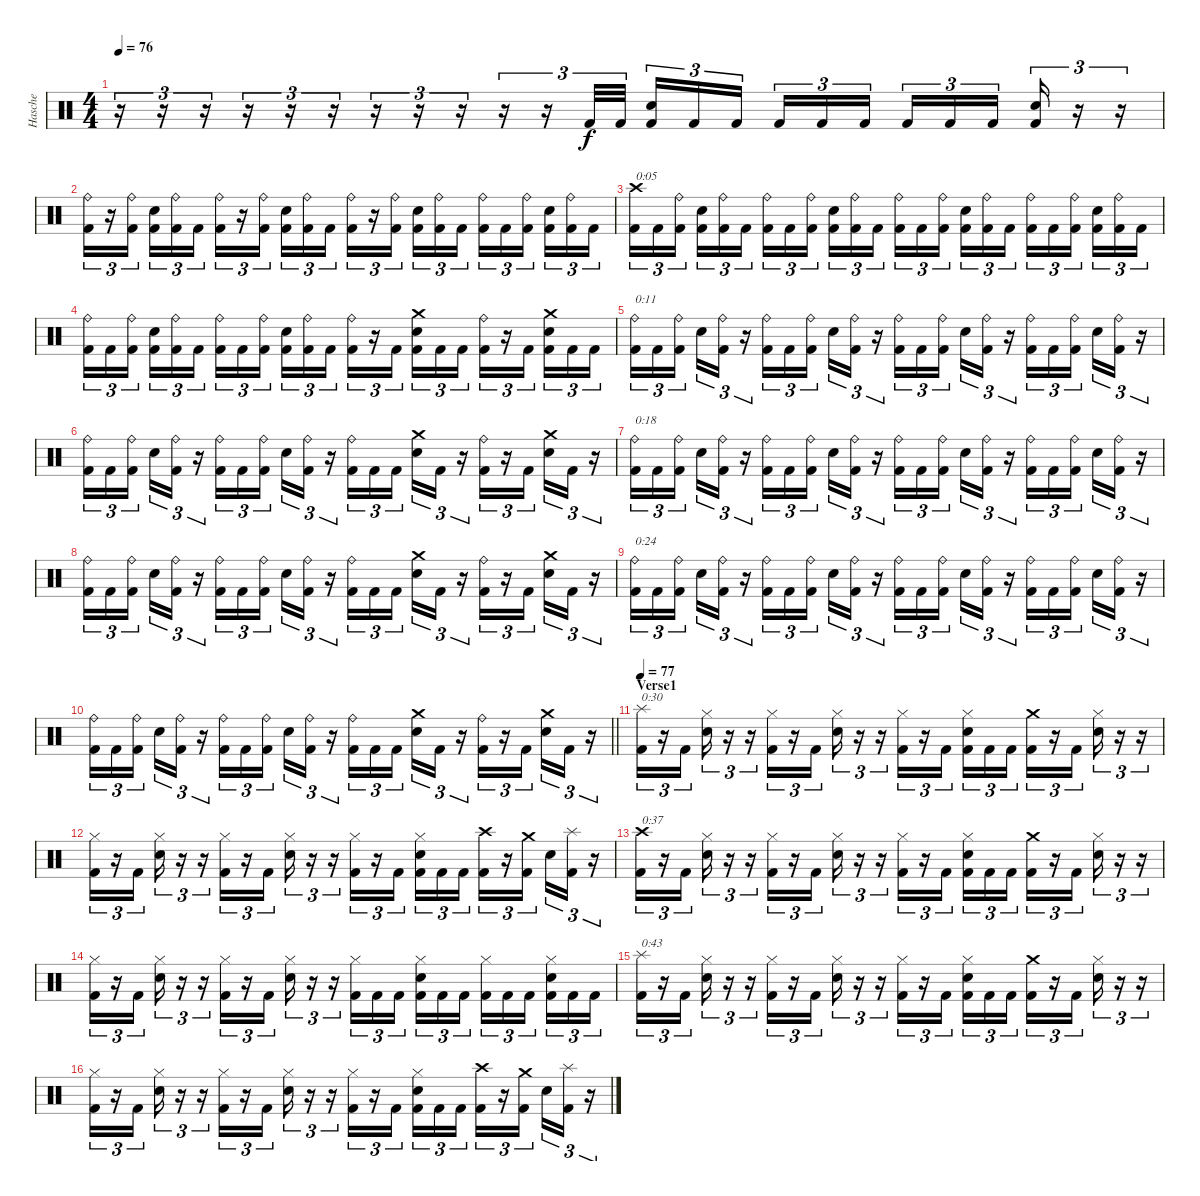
\track ("Hasche" "Hasche") {instrument percussion}
\staff {score}
\articulation defaults
\ts (4 4)
\tempo 76
\clef neutral
\ks c
r.16{tu (3 2) dy f} r.16{tu (3 2)} r.16{tu (3 2)} r.16{tu (3 2)} r.16{tu (3 2)} r.16{tu (3 2)} r.16{tu (3 2)} r.16{tu (3 2)} r.16{tu (3 2)} r.16{tu (3 2)} r.16{tu (3 2)} "Kick (hit) 2".32{tu (3 2)} "Kick (hit) 2".32{tu (3 2)} ("Snare (hit) 2" "Kick (hit) 2").16{tu (3 2)} "Kick (hit) 2".16{tu (3 2)} "Kick (hit) 2".16{tu (3 2) beam splitsecondary} "Kick (hit) 2".16{tu (3 2)} "Kick (hit) 2".16{tu (3 2)} "Kick (hit) 2".16{tu (3 2)} "Kick (hit) 2".16{tu (3 2)} "Kick (hit) 2".16{tu (3 2)} "Kick (hit) 2".16{tu (3 2) beam splitsecondary} ("Snare (hit) 2" "Kick (hit) 2").16{tu (3 2)} r.16{tu (3 2)} r.16{tu (3 2)} |
("Ride (bell)" "Kick (hit) 2").16{tu (3 2)} r.16{tu (3 2)} ("Ride (bell)" "Kick (hit) 2").16{tu (3 2) beam splitsecondary} ("Snare (hit) 2" "Kick (hit) 2").16{tu (3 2)} ("Ride (bell)" "Kick (hit) 2").16{tu (3 2)} "Kick (hit) 2".16{tu (3 2)} ("Ride (bell)" "Kick (hit) 2").16{tu (3 2)} r.16{tu (3 2)} ("Ride (bell)" "Kick (hit) 2").16{tu (3 2) beam splitsecondary} ("Snare (hit) 2" "Kick (hit) 2").16{tu (3 2)} ("Ride (bell)" "Kick (hit) 2").16{tu (3 2)} "Kick (hit) 2".16{tu (3 2)} ("Ride (bell)" "Kick (hit) 2").16{tu (3 2)} r.16{tu (3 2)} ("Ride (bell)" "Kick (hit) 2").16{tu (3 2) beam splitsecondary} ("Snare (hit) 2" "Kick (hit) 2").16{tu (3 2)} ("Ride (bell)" "Kick (hit) 2").16{tu (3 2)} "Kick (hit) 2".16{tu (3 2)} ("Ride (bell)" "Kick (hit) 2").16{tu (3 2)} "Kick (hit) 2".16{tu (3 2)} ("Ride (bell)" "Kick (hit) 2").16{tu (3 2) beam splitsecondary} ("Snare (hit) 2" "Kick (hit) 2").16{tu (3 2)} ("Ride (bell)" "Kick (hit) 2").16{tu (3 2)} "Kick (hit) 2".16{tu (3 2)} |
("Crash high (hit)" "Kick (hit) 2").16{tu (3 2) txt "0:05"} "Kick (hit) 2".16{tu (3 2)} ("Ride (bell)" "Kick (hit) 2").16{tu (3 2) beam splitsecondary} ("Snare (hit) 2" "Kick (hit) 2").16{tu (3 2)} ("Ride (bell)" "Kick (hit) 2").16{tu (3 2)} "Kick (hit) 2".16{tu (3 2)} ("Ride (bell)" "Kick (hit) 2").16{tu (3 2)} "Kick (hit) 2".16{tu (3 2)} ("Ride (bell)" "Kick (hit) 2").16{tu (3 2) beam splitsecondary} ("Snare (hit) 2" "Kick (hit) 2").16{tu (3 2)} ("Ride (bell)" "Kick (hit) 2").16{tu (3 2)} "Kick (hit) 2".16{tu (3 2)} ("Ride (bell)" "Kick (hit) 2").16{tu (3 2)} "Kick (hit) 2".16{tu (3 2)} ("Ride (bell)" "Kick (hit) 2").16{tu (3 2) beam splitsecondary} ("Snare (hit) 2" "Kick (hit) 2").16{tu (3 2)} ("Ride (bell)" "Kick (hit) 2").16{tu (3 2)} "Kick (hit) 2".16{tu (3 2)} ("Ride (bell)" "Kick (hit) 2").16{tu (3 2)} "Kick (hit) 2".16{tu (3 2)} ("Ride (bell)" "Kick (hit) 2").16{tu (3 2) beam splitsecondary} ("Snare (hit) 2" "Kick (hit) 2").16{tu (3 2)} ("Ride (bell)" "Kick (hit) 2").16{tu (3 2)} "Kick (hit) 2".16{tu (3 2)} |
("Ride (bell)" "Kick (hit) 2").16{tu (3 2)} "Kick (hit) 2".16{tu (3 2)} ("Ride (bell)" "Kick (hit) 2").16{tu (3 2) beam splitsecondary} ("Snare (hit) 2" "Kick (hit) 2").16{tu (3 2)} ("Ride (bell)" "Kick (hit) 2").16{tu (3 2)} "Kick (hit) 2".16{tu (3 2)} ("Ride (bell)" "Kick (hit) 2").16{tu (3 2)} "Kick (hit) 2".16{tu (3 2)} ("Ride (bell)" "Kick (hit) 2").16{tu (3 2) beam splitsecondary} ("Snare (hit) 2" "Kick (hit) 2").16{tu (3 2)} ("Ride (bell)" "Kick (hit) 2").16{tu (3 2)} "Kick (hit) 2".16{tu (3 2)} ("Ride (bell)" "Kick (hit) 2").16{tu (3 2)} r.16{tu (3 2)} "Kick (hit) 2".16{tu (3 2) beam splitsecondary} ("Crash medium (hit)" "Snare (hit) 2" "Kick (hit) 2").16{tu (3 2)} "Kick (hit) 2".16{tu (3 2)} "Kick (hit) 2".16{tu (3 2)} ("Ride (bell)" "Kick (hit) 2").16{tu (3 2)} r.16{tu (3 2)} "Kick (hit) 2".16{tu (3 2) beam splitsecondary} ("Crash medium (hit)" "Snare (hit) 2" "Kick (hit) 2").16{tu (3 2)} "Kick (hit) 2".16{tu (3 2)} "Kick (hit) 2".16{tu (3 2)} |
("Ride (bell)" "Kick (hit) 2").16{tu (3 2) txt "0:11"} "Kick (hit) 2".16{tu (3 2)} ("Ride (bell)" "Kick (hit) 2").16{tu (3 2) beam splitsecondary} "Snare (hit) 2".16{tu (3 2)} ("Ride (bell)" "Kick (hit) 2").16{tu (3 2)} r.16{tu (3 2)} ("Ride (bell)" "Kick (hit) 2").16{tu (3 2)} "Kick (hit) 2".16{tu (3 2)} ("Ride (bell)" "Kick (hit) 2").16{tu (3 2) beam splitsecondary} "Snare (hit) 2".16{tu (3 2)} ("Ride (bell)" "Kick (hit) 2").16{tu (3 2)} r.16{tu (3 2)} ("Ride (bell)" "Kick (hit) 2").16{tu (3 2)} "Kick (hit) 2".16{tu (3 2)} ("Ride (bell)" "Kick (hit) 2").16{tu (3 2) beam splitsecondary} "Snare (hit) 2".16{tu (3 2)} ("Ride (bell)" "Kick (hit) 2").16{tu (3 2)} r.16{tu (3 2)} ("Ride (bell)" "Kick (hit) 2").16{tu (3 2)} "Kick (hit) 2".16{tu (3 2)} ("Ride (bell)" "Kick (hit) 2").16{tu (3 2) beam splitsecondary} "Snare (hit) 2".16{tu (3 2)} ("Ride (bell)" "Kick (hit) 2").16{tu (3 2)} r.16{tu (3 2)} |
("Ride (bell)" "Kick (hit) 2").16{tu (3 2)} "Kick (hit) 2".16{tu (3 2)} ("Ride (bell)" "Kick (hit) 2").16{tu (3 2) beam splitsecondary} "Snare (hit) 2".16{tu (3 2)} ("Ride (bell)" "Kick (hit) 2").16{tu (3 2)} r.16{tu (3 2)} ("Ride (bell)" "Kick (hit) 2").16{tu (3 2)} "Kick (hit) 2".16{tu (3 2)} ("Ride (bell)" "Kick (hit) 2").16{tu (3 2) beam splitsecondary} "Snare (hit) 2".16{tu (3 2)} ("Ride (bell)" "Kick (hit) 2").16{tu (3 2)} r.16{tu (3 2)} ("Ride (bell)" "Kick (hit) 2").16{tu (3 2)} "Kick (hit) 2".16{tu (3 2)} "Kick (hit) 2".16{tu (3 2) beam splitsecondary} ("Crash medium (hit)" "Snare (hit) 2").16{tu (3 2)} "Kick (hit) 2".16{tu (3 2)} r.16{tu (3 2)} ("Ride (bell)" "Kick (hit) 2").16{tu (3 2)} r.16{tu (3 2)} "Kick (hit) 2".16{tu (3 2) beam splitsecondary} ("Crash medium (hit)" "Snare (hit) 2").16{tu (3 2)} "Kick (hit) 2".16{tu (3 2)} r.16{tu (3 2)} |
("Ride (bell)" "Kick (hit) 2").16{tu (3 2) txt "0:18"} "Kick (hit) 2".16{tu (3 2)} ("Ride (bell)" "Kick (hit) 2").16{tu (3 2) beam splitsecondary} "Snare (hit) 2".16{tu (3 2)} ("Ride (bell)" "Kick (hit) 2").16{tu (3 2)} r.16{tu (3 2)} ("Ride (bell)" "Kick (hit) 2").16{tu (3 2)} "Kick (hit) 2".16{tu (3 2)} ("Ride (bell)" "Kick (hit) 2").16{tu (3 2) beam splitsecondary} "Snare (hit) 2".16{tu (3 2)} ("Ride (bell)" "Kick (hit) 2").16{tu (3 2)} r.16{tu (3 2)} ("Ride (bell)" "Kick (hit) 2").16{tu (3 2)} "Kick (hit) 2".16{tu (3 2)} ("Ride (bell)" "Kick (hit) 2").16{tu (3 2) beam splitsecondary} "Snare (hit) 2".16{tu (3 2)} ("Ride (bell)" "Kick (hit) 2").16{tu (3 2)} r.16{tu (3 2)} ("Ride (bell)" "Kick (hit) 2").16{tu (3 2)} "Kick (hit) 2".16{tu (3 2)} ("Ride (bell)" "Kick (hit) 2").16{tu (3 2) beam splitsecondary} "Snare (hit) 2".16{tu (3 2)} ("Ride (bell)" "Kick (hit) 2").16{tu (3 2)} r.16{tu (3 2)} |
("Ride (bell)" "Kick (hit) 2").16{tu (3 2)} "Kick (hit) 2".16{tu (3 2)} ("Ride (bell)" "Kick (hit) 2").16{tu (3 2) beam splitsecondary} "Snare (hit) 2".16{tu (3 2)} ("Ride (bell)" "Kick (hit) 2").16{tu (3 2)} r.16{tu (3 2)} ("Ride (bell)" "Kick (hit) 2").16{tu (3 2)} "Kick (hit) 2".16{tu (3 2)} ("Ride (bell)" "Kick (hit) 2").16{tu (3 2) beam splitsecondary} "Snare (hit) 2".16{tu (3 2)} ("Ride (bell)" "Kick (hit) 2").16{tu (3 2)} r.16{tu (3 2)} ("Ride (bell)" "Kick (hit) 2").16{tu (3 2)} "Kick (hit) 2".16{tu (3 2)} "Kick (hit) 2".16{tu (3 2) beam splitsecondary} ("Crash medium (hit)" "Snare (hit) 2").16{tu (3 2)} "Kick (hit) 2".16{tu (3 2)} r.16{tu (3 2)} ("Ride (bell)" "Kick (hit) 2").16{tu (3 2)} r.16{tu (3 2)} "Kick (hit) 2".16{tu (3 2) beam splitsecondary} ("Crash medium (hit)" "Snare (hit) 2").16{tu (3 2)} "Kick (hit) 2".16{tu (3 2)} r.16{tu (3 2)} |
("Ride (bell)" "Kick (hit) 2").16{tu (3 2) txt "0:24"} "Kick (hit) 2".16{tu (3 2)} ("Ride (bell)" "Kick (hit) 2").16{tu (3 2) beam splitsecondary} "Snare (hit) 2".16{tu (3 2)} ("Ride (bell)" "Kick (hit) 2").16{tu (3 2)} r.16{tu (3 2)} ("Ride (bell)" "Kick (hit) 2").16{tu (3 2)} "Kick (hit) 2".16{tu (3 2)} ("Ride (bell)" "Kick (hit) 2").16{tu (3 2) beam splitsecondary} "Snare (hit) 2".16{tu (3 2)} ("Ride (bell)" "Kick (hit) 2").16{tu (3 2)} r.16{tu (3 2)} ("Ride (bell)" "Kick (hit) 2").16{tu (3 2)} "Kick (hit) 2".16{tu (3 2)} ("Ride (bell)" "Kick (hit) 2").16{tu (3 2) beam splitsecondary} "Snare (hit) 2".16{tu (3 2)} ("Ride (bell)" "Kick (hit) 2").16{tu (3 2)} r.16{tu (3 2)} ("Ride (bell)" "Kick (hit) 2").16{tu (3 2)} "Kick (hit) 2".16{tu (3 2)} ("Ride (bell)" "Kick (hit) 2").16{tu (3 2) beam splitsecondary} "Snare (hit) 2".16{tu (3 2)} ("Ride (bell)" "Kick (hit) 2").16{tu (3 2)} r.16{tu (3 2)} |
\barLineRight lightlight
("Ride (bell)" "Kick (hit) 2").16{tu (3 2)} "Kick (hit) 2".16{tu (3 2)} ("Ride (bell)" "Kick (hit) 2").16{tu (3 2) beam splitsecondary} "Snare (hit) 2".16{tu (3 2)} ("Ride (bell)" "Kick (hit) 2").16{tu (3 2)} r.16{tu (3 2)} ("Ride (bell)" "Kick (hit) 2").16{tu (3 2)} "Kick (hit) 2".16{tu (3 2)} ("Ride (bell)" "Kick (hit) 2").16{tu (3 2) beam splitsecondary} "Snare (hit) 2".16{tu (3 2)} ("Ride (bell)" "Kick (hit) 2").16{tu (3 2)} r.16{tu (3 2)} ("Ride (bell)" "Kick (hit) 2").16{tu (3 2)} "Kick (hit) 2".16{tu (3 2)} "Kick (hit) 2".16{tu (3 2) beam splitsecondary} ("Crash medium (hit)" "Snare (hit) 2").16{tu (3 2)} "Kick (hit) 2".16{tu (3 2)} r.16{tu (3 2)} ("Ride (bell)" "Kick (hit) 2").16{tu (3 2)} r.16{tu (3 2)} "Kick (hit) 2".16{tu (3 2) beam splitsecondary} ("Crash medium (hit)" "Snare (hit) 2").16{tu (3 2)} "Kick (hit) 2".16{tu (3 2)} r.16{tu (3 2)} |
\section ("" "Verse1")
\tempo 77
("Splash (hit)" "Kick (hit) 2").16{tu (3 2) txt "0:30"} r.16{tu (3 2)} "Kick (hit) 2".16{tu (3 2)} ("Hi-Hat (closed)" "Snare (hit) 2").16{tu (3 2)} r.16{tu (3 2)} r.16{tu (3 2)} ("Hi-Hat (closed)" "Kick (hit) 2").16{tu (3 2)} r.16{tu (3 2)} "Kick (hit) 2".16{tu (3 2)} ("Hi-Hat (closed)" "Snare (hit) 2").16{tu (3 2)} r.16{tu (3 2)} r.16{tu (3 2)} ("Hi-Hat (closed)" "Kick (hit) 2").16{tu (3 2)} r.16{tu (3 2)} "Kick (hit) 2".16{tu (3 2) beam splitsecondary} ("Hi-Hat (closed)" "Snare (hit) 2" "Kick (hit) 2").16{tu (3 2)} "Kick (hit) 2".16{tu (3 2)} "Kick (hit) 2".16{tu (3 2)} ("Crash medium (hit)" "Kick (hit) 2").16{tu (3 2)} r.16{tu (3 2)} "Kick (hit) 2".16{tu (3 2)} ("Hi-Hat (closed)" "Snare (hit) 2").16{tu (3 2)} r.16{tu (3 2)} r.16{tu (3 2)} |
("Hi-Hat (closed)" "Kick (hit) 2").16{tu (3 2)} r.16{tu (3 2)} "Kick (hit) 2".16{tu (3 2)} ("Hi-Hat (closed)" "Snare (hit) 2").16{tu (3 2)} r.16{tu (3 2)} r.16{tu (3 2)} ("Hi-Hat (closed)" "Kick (hit) 2").16{tu (3 2)} r.16{tu (3 2)} "Kick (hit) 2".16{tu (3 2)} ("Hi-Hat (closed)" "Snare (hit) 2").16{tu (3 2)} r.16{tu (3 2)} r.16{tu (3 2)} ("Hi-Hat (closed)" "Kick (hit) 2").16{tu (3 2)} r.16{tu (3 2)} "Kick (hit) 2".16{tu (3 2) beam splitsecondary} ("Hi-Hat (closed)" "Snare (hit) 2" "Kick (hit) 2").16{tu (3 2)} "Kick (hit) 2".16{tu (3 2)} "Kick (hit) 2".16{tu (3 2)} ("Crash high (hit)" "Kick (hit) 2").16{tu (3 2)} r.16{tu (3 2)} ("Crash medium (hit)" "Kick (hit) 2").16{tu (3 2) beam splitsecondary} "Snare (hit) 2".16{tu (3 2)} ("Splash (hit)" "Kick (hit) 2").16{tu (3 2)} r.16{tu (3 2)} |
("Crash high (hit)" "Kick (hit) 2").16{tu (3 2) txt "0:37"} r.16{tu (3 2)} "Kick (hit) 2".16{tu (3 2)} ("Hi-Hat (closed)" "Snare (hit) 2").16{tu (3 2)} r.16{tu (3 2)} r.16{tu (3 2)} ("Hi-Hat (closed)" "Kick (hit) 2").16{tu (3 2)} r.16{tu (3 2)} "Kick (hit) 2".16{tu (3 2)} ("Hi-Hat (closed)" "Snare (hit) 2").16{tu (3 2)} r.16{tu (3 2)} r.16{tu (3 2)} ("Hi-Hat (closed)" "Kick (hit) 2").16{tu (3 2)} r.16{tu (3 2)} "Kick (hit) 2".16{tu (3 2) beam splitsecondary} ("Hi-Hat (closed)" "Snare (hit) 2" "Kick (hit) 2").16{tu (3 2)} "Kick (hit) 2".16{tu (3 2)} "Kick (hit) 2".16{tu (3 2)} ("Crash medium (hit)" "Kick (hit) 2").16{tu (3 2)} r.16{tu (3 2)} "Kick (hit) 2".16{tu (3 2)} ("Hi-Hat (closed)" "Snare (hit) 2").16{tu (3 2)} r.16{tu (3 2)} r.16{tu (3 2)} |
("Hi-Hat (closed)" "Kick (hit) 2").16{tu (3 2)} r.16{tu (3 2)} "Kick (hit) 2".16{tu (3 2)} ("Hi-Hat (closed)" "Snare (hit) 2").16{tu (3 2)} r.16{tu (3 2)} r.16{tu (3 2)} ("Hi-Hat (closed)" "Kick (hit) 2").16{tu (3 2)} r.16{tu (3 2)} "Kick (hit) 2".16{tu (3 2)} ("Hi-Hat (closed)" "Snare (hit) 2").16{tu (3 2)} r.16{tu (3 2)} r.16{tu (3 2)} ("Hi-Hat (closed)" "Kick (hit) 2").16{tu (3 2)} "Kick (hit) 2".16{tu (3 2)} "Kick (hit) 2".16{tu (3 2) beam splitsecondary} ("Hi-Hat (closed)" "Snare (hit) 2" "Kick (hit) 2").16{tu (3 2)} "Kick (hit) 2".16{tu (3 2)} "Kick (hit) 2".16{tu (3 2)} ("Hi-Hat (closed)" "Kick (hit) 2").16{tu (3 2)} "Kick (hit) 2".16{tu (3 2)} "Kick (hit) 2".16{tu (3 2) beam splitsecondary} ("Hi-Hat (closed)" "Snare (hit) 2" "Kick (hit) 2").16{tu (3 2)} "Kick (hit) 2".16{tu (3 2)} "Kick (hit) 2".16{tu (3 2)} |
("Splash (hit)" "Kick (hit) 2").16{tu (3 2) txt "0:43"} r.16{tu (3 2)} "Kick (hit) 2".16{tu (3 2)} ("Hi-Hat (closed)" "Snare (hit) 2").16{tu (3 2)} r.16{tu (3 2)} r.16{tu (3 2)} ("Hi-Hat (closed)" "Kick (hit) 2").16{tu (3 2)} r.16{tu (3 2)} "Kick (hit) 2".16{tu (3 2)} ("Hi-Hat (closed)" "Snare (hit) 2").16{tu (3 2)} r.16{tu (3 2)} r.16{tu (3 2)} ("Hi-Hat (closed)" "Kick (hit) 2").16{tu (3 2)} r.16{tu (3 2)} "Kick (hit) 2".16{tu (3 2) beam splitsecondary} ("Hi-Hat (closed)" "Snare (hit) 2" "Kick (hit) 2").16{tu (3 2)} "Kick (hit) 2".16{tu (3 2)} "Kick (hit) 2".16{tu (3 2)} ("Crash medium (hit)" "Kick (hit) 2").16{tu (3 2)} r.16{tu (3 2)} "Kick (hit) 2".16{tu (3 2)} ("Hi-Hat (closed)" "Snare (hit) 2").16{tu (3 2)} r.16{tu (3 2)} r.16{tu (3 2)} |
("Hi-Hat (closed)" "Kick (hit) 2").16{tu (3 2)} r.16{tu (3 2)} "Kick (hit) 2".16{tu (3 2)} ("Hi-Hat (closed)" "Snare (hit) 2").16{tu (3 2)} r.16{tu (3 2)} r.16{tu (3 2)} ("Hi-Hat (closed)" "Kick (hit) 2").16{tu (3 2)} r.16{tu (3 2)} "Kick (hit) 2".16{tu (3 2)} ("Hi-Hat (closed)" "Snare (hit) 2").16{tu (3 2)} r.16{tu (3 2)} r.16{tu (3 2)} ("Hi-Hat (closed)" "Kick (hit) 2").16{tu (3 2)} r.16{tu (3 2)} "Kick (hit) 2".16{tu (3 2) beam splitsecondary} ("Hi-Hat (closed)" "Snare (hit) 2" "Kick (hit) 2").16{tu (3 2)} "Kick (hit) 2".16{tu (3 2)} "Kick (hit) 2".16{tu (3 2)} ("Crash high (hit)" "Kick (hit) 2").16{tu (3 2)} r.16{tu (3 2)} ("Crash medium (hit)" "Kick (hit) 2").16{tu (3 2) beam splitsecondary} "Snare (hit) 2".16{tu (3 2)} ("Splash (hit)" "Kick (hit) 2").16{tu (3 2)} r.16{tu (3 2)}
